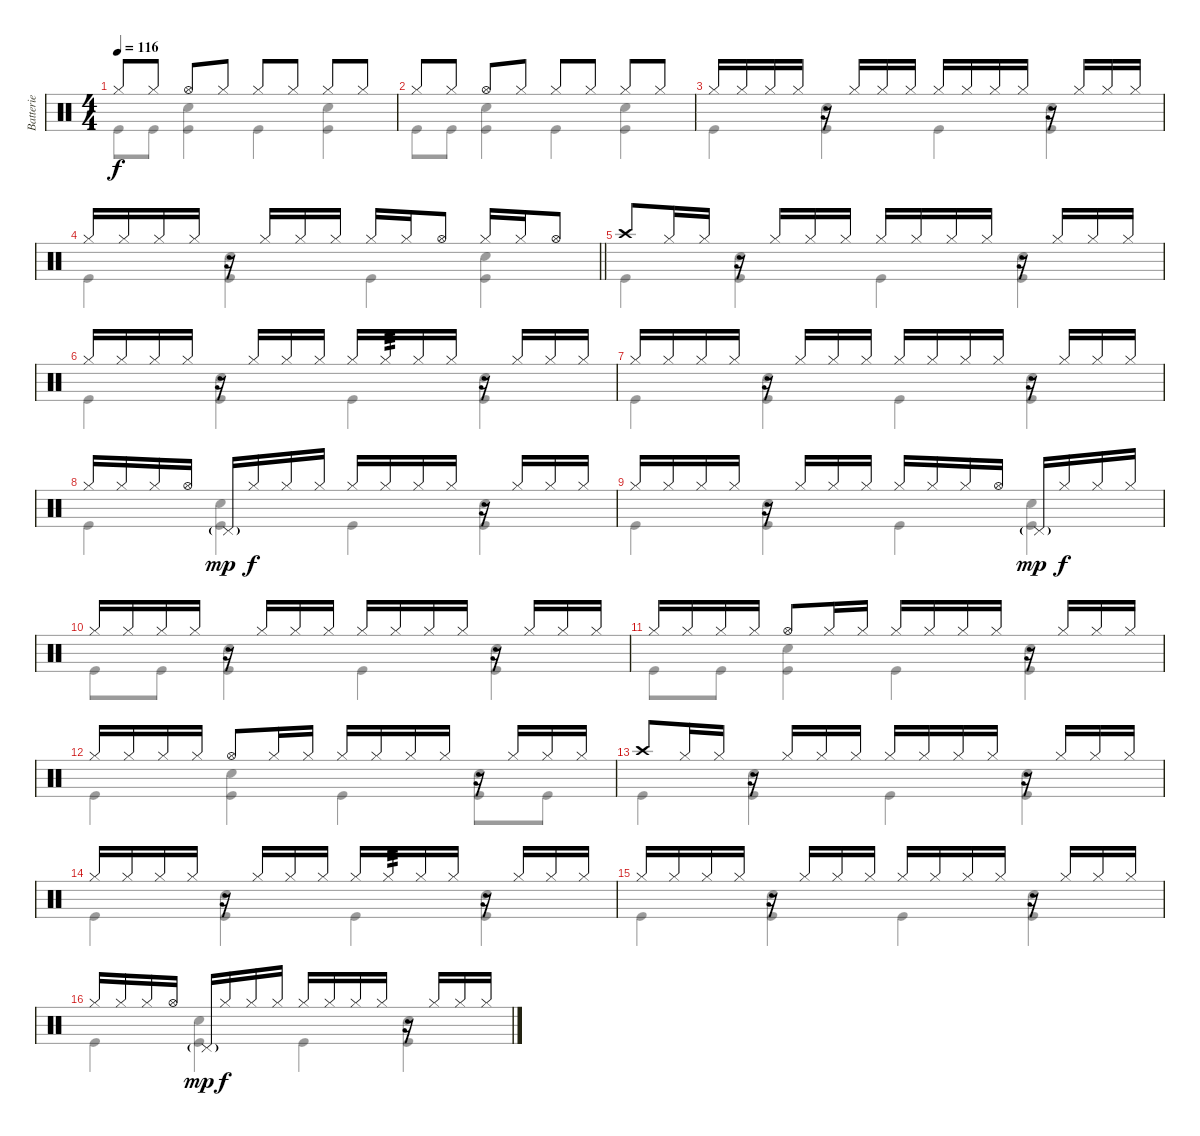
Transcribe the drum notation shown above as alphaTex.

\track ("Batterie" "Batterie") {instrument percussion}
\staff {score}
\articulation defaults
\voice
\ts (4 4)
\tempo 116
\clef neutral
\ks c "Hi-Hat (closed)".8{dy f} "Hi-Hat (closed)".8 "Hi-Hat (open)".8 "Hi-Hat (closed)".8 "Hi-Hat (closed)".8 "Hi-Hat (closed)".8 "Hi-Hat (closed)".8 "Hi-Hat (closed)".8
|
"Hi-Hat (closed)".8 "Hi-Hat (closed)".8 "Hi-Hat (open)".8 "Hi-Hat (closed)".8 "Hi-Hat (closed)".8 "Hi-Hat (closed)".8 "Hi-Hat (closed)".8 "Hi-Hat (closed)".8 |
"Hi-Hat (closed)".16 "Hi-Hat (closed)".16 "Hi-Hat (closed)".16 "Hi-Hat (closed)".16 r.16 "Hi-Hat (closed)".16 "Hi-Hat (closed)".16 "Hi-Hat (closed)".16 "Hi-Hat (closed)".16 "Hi-Hat (closed)".16 "Hi-Hat (closed)".16 "Hi-Hat (closed)".16 r.16 "Hi-Hat (closed)".16 "Hi-Hat (closed)".16 "Hi-Hat (closed)".16 |
\barLineRight lightlight "Hi-Hat (closed)".16 "Hi-Hat (closed)".16 "Hi-Hat (closed)".16 "Hi-Hat (closed)".16
r.16 "Hi-Hat (closed)".16 "Hi-Hat (closed)".16 "Hi-Hat (closed)".16 "Hi-Hat (closed)".16 "Hi-Hat (closed)".16 "Hi-Hat (open)".8 "Hi-Hat (closed)".16 "Hi-Hat (closed)".16 "Hi-Hat (open)".8 |
"Crash high (hit)".8 "Hi-Hat (closed)".16 "Hi-Hat (closed)".16 r.16 "Hi-Hat (closed)".16 "Hi-Hat (closed)".16 "Hi-Hat (closed)".16 "Hi-Hat (closed)".16 "Hi-Hat (closed)".16 "Hi-Hat (closed)".16 "Hi-Hat (closed)".16 r.16 "Hi-Hat (closed)".16 "Hi-Hat (closed)".16 "Hi-Hat (closed)".16 |
"Hi-Hat (closed)".16 "Hi-Hat (closed)".16 "Hi-Hat (closed)".16 "Hi-Hat (closed)".16 r.16 "Hi-Hat (closed)".16 "Hi-Hat (closed)".16 "Hi-Hat (closed)".16 "Hi-Hat (closed)".16 "Hi-Hat (closed)".16{tp 3} "Hi-Hat (closed)".16 "Hi-Hat (closed)".16 r.16 "Hi-Hat (closed)".16 "Hi-Hat (closed)".16 "Hi-Hat (closed)".16 |
"Hi-Hat (closed)".16 "Hi-Hat (closed)".16 "Hi-Hat (closed)".16 "Hi-Hat (closed)".16 r.16 "Hi-Hat (closed)".16 "Hi-Hat (closed)".16 "Hi-Hat (closed)".16 "Hi-Hat (closed)".16 "Hi-Hat (closed)".16 "Hi-Hat (closed)".16 "Hi-Hat (closed)".16 r.16 "Hi-Hat (closed)".16 "Hi-Hat (closed)".16 "Hi-Hat (closed)".16 |
"Hi-Hat (closed)".16 "Hi-Hat (closed)".16 "Hi-Hat (closed)".16 "Hi-Hat (open)".16 "Pedal Hi-Hat (hit)"{g}.16{dy mp} "Hi-Hat (closed)".16{dy f} "Hi-Hat (closed)".16 "Hi-Hat (closed)".16 "Hi-Hat (closed)".16 "Hi-Hat (closed)".16 "Hi-Hat (closed)".16 "Hi-Hat (closed)".16 r.16 "Hi-Hat (closed)".16 "Hi-Hat (closed)".16 "Hi-Hat (closed)".16 |
"Hi-Hat (closed)".16 "Hi-Hat (closed)".16 "Hi-Hat (closed)".16 "Hi-Hat (closed)".16 r.16 "Hi-Hat (closed)".16 "Hi-Hat (closed)".16 "Hi-Hat (closed)".16 "Hi-Hat (closed)".16 "Hi-Hat (closed)".16 "Hi-Hat (closed)".16 "Hi-Hat (open)".16 "Pedal Hi-Hat (hit)"{g}.16{dy mp} "Hi-Hat (closed)".16{dy f} "Hi-Hat (closed)".16 "Hi-Hat (closed)".16 |
"Hi-Hat (closed)".16 "Hi-Hat (closed)".16 "Hi-Hat (closed)".16 "Hi-Hat (closed)".16 r.16 "Hi-Hat (closed)".16 "Hi-Hat (closed)".16 "Hi-Hat (closed)".16 "Hi-Hat (closed)".16 "Hi-Hat (closed)".16 "Hi-Hat (closed)".16 "Hi-Hat (closed)".16 r.16 "Hi-Hat (closed)".16 "Hi-Hat (closed)".16 "Hi-Hat (closed)".16 |
"Hi-Hat (closed)".16 "Hi-Hat (closed)".16 "Hi-Hat (closed)".16 "Hi-Hat (closed)".16 "Hi-Hat (open)".8 "Hi-Hat (closed)".16 "Hi-Hat (closed)".16 "Hi-Hat (closed)".16 "Hi-Hat (closed)".16 "Hi-Hat (closed)".16 "Hi-Hat (closed)".16 r.16 "Hi-Hat (closed)".16 "Hi-Hat (closed)".16 "Hi-Hat (closed)".16 |
"Hi-Hat (closed)".16 "Hi-Hat (closed)".16 "Hi-Hat (closed)".16 "Hi-Hat (closed)".16 "Hi-Hat (open)".8 "Hi-Hat (closed)".16 "Hi-Hat (closed)".16 "Hi-Hat (closed)".16 "Hi-Hat (closed)".16 "Hi-Hat (closed)".16 "Hi-Hat (closed)".16 r.16 "Hi-Hat (closed)".16 "Hi-Hat (closed)".16 "Hi-Hat (closed)".16 |
"Crash high (hit)".8 "Hi-Hat (closed)".16 "Hi-Hat (closed)".16 r.16 "Hi-Hat (closed)".16 "Hi-Hat (closed)".16 "Hi-Hat (closed)".16 "Hi-Hat (closed)".16 "Hi-Hat (closed)".16 "Hi-Hat (closed)".16 "Hi-Hat (closed)".16 r.16 "Hi-Hat (closed)".16 "Hi-Hat (closed)".16 "Hi-Hat (closed)".16 |
"Hi-Hat (closed)".16 "Hi-Hat (closed)".16 "Hi-Hat (closed)".16 "Hi-Hat (closed)".16 r.16 "Hi-Hat (closed)".16 "Hi-Hat (closed)".16 "Hi-Hat (closed)".16 "Hi-Hat (closed)".16 "Hi-Hat (closed)".16{tp 3} "Hi-Hat (closed)".16 "Hi-Hat (closed)".16 r.16 "Hi-Hat (closed)".16 "Hi-Hat (closed)".16 "Hi-Hat (closed)".16 |
"Hi-Hat (closed)".16 "Hi-Hat (closed)".16 "Hi-Hat (closed)".16 "Hi-Hat (closed)".16 r.16 "Hi-Hat (closed)".16 "Hi-Hat (closed)".16 "Hi-Hat (closed)".16 "Hi-Hat (closed)".16 "Hi-Hat (closed)".16 "Hi-Hat (closed)".16 "Hi-Hat (closed)".16 r.16 "Hi-Hat (closed)".16 "Hi-Hat (closed)".16 "Hi-Hat (closed)".16 |
"Hi-Hat (closed)".16 "Hi-Hat (closed)".16 "Hi-Hat (closed)".16 "Hi-Hat (open)".16 "Pedal Hi-Hat (hit)"{g}.16{dy mp} "Hi-Hat (closed)".16{dy f} "Hi-Hat (closed)".16 "Hi-Hat (closed)".16 "Hi-Hat (closed)".16 "Hi-Hat (closed)".16 "Hi-Hat (closed)".16 "Hi-Hat (closed)".16 r.16 "Hi-Hat (closed)".16 "Hi-Hat (closed)".16 "Hi-Hat (closed)".16
\voice
\clef neutral
\ottava regular
\simile none
\ks c "Kick (hit)".8{dy f} "Kick (hit)".8
("Snare (hit) 2" "Kick (hit)").4 "Kick (hit)".4 ("Snare (hit) 2" "Kick (hit)").4 |
"Kick (hit)".8 "Kick (hit)".8 ("Snare (hit) 2" "Kick (hit)").4 "Kick (hit)".4 ("Snare (hit) 2" "Kick (hit)").4 |
"Kick (hit)".4 ("Snare (hit) 2" "Kick (hit)").4 "Kick (hit)".4 ("Snare (hit) 2" "Kick (hit)").4 |
\barLineRight lightlight "Kick (hit)".4
("Snare (hit) 2" "Kick (hit)").4 "Kick (hit)".4 ("Snare (hit) 2" "Kick (hit)").4 |
"Kick (hit)".4 ("Snare (hit) 2" "Kick (hit)").4 "Kick (hit)".4 ("Snare (hit) 2" "Kick (hit)").4 |
"Kick (hit)".4 ("Snare (hit) 2" "Kick (hit)").4 "Kick (hit)".4 ("Snare (hit) 2" "Kick (hit)").4 |
"Kick (hit)".4 ("Snare (hit) 2" "Kick (hit)").4 "Kick (hit)".4 ("Snare (hit) 2" "Kick (hit)").4 |
"Kick (hit)".4 ("Snare (hit) 2" "Kick (hit)").4 "Kick (hit)".4 ("Snare (hit) 2" "Kick (hit)").4 |
"Kick (hit)".4 ("Snare (hit) 2" "Kick (hit)").4 "Kick (hit)".4 ("Snare (hit) 2" "Kick (hit)").4 |
"Kick (hit)".8 "Kick (hit)".8 ("Snare (hit) 2" "Kick (hit)").4 "Kick (hit)".4 ("Snare (hit) 2" "Kick (hit)").4 |
"Kick (hit)".8 "Kick (hit)".8 ("Snare (hit) 2" "Kick (hit)").4 "Kick (hit)".4 ("Snare (hit) 2" "Kick (hit)").4 |
"Kick (hit)".4 ("Snare (hit) 2" "Kick (hit)").4 "Kick (hit)".4 ("Snare (hit) 2" "Kick (hit)").8 "Kick (hit)".8 |
"Kick (hit)".4 ("Snare (hit) 2" "Kick (hit)").4 "Kick (hit)".4 ("Snare (hit) 2" "Kick (hit)").4 |
"Kick (hit)".4 ("Snare (hit) 2" "Kick (hit)").4 "Kick (hit)".4 ("Snare (hit) 2" "Kick (hit)").4 |
"Kick (hit)".4 ("Snare (hit) 2" "Kick (hit)").4 "Kick (hit)".4 ("Snare (hit) 2" "Kick (hit)").4 |
"Kick (hit)".4 ("Snare (hit) 2" "Kick (hit)").4 "Kick (hit)".4 ("Snare (hit) 2" "Kick (hit)").4
